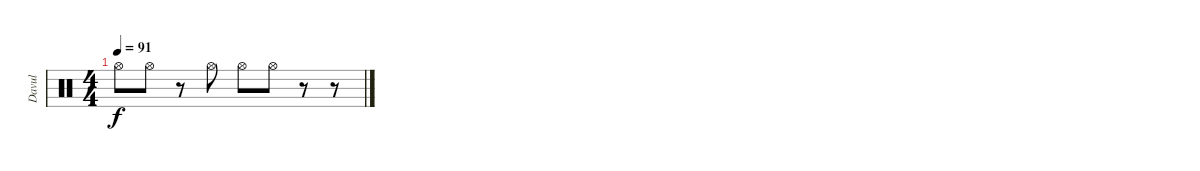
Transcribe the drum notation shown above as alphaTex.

\track ("Davul" "Davul") {instrument percussion}
\staff {score}
\articulation defaults
\ts (4 4)
\tempo 91
\clef neutral
\ks c "Hi-Hat (open)".8{dy f} "Hi-Hat (open)".8
r.8 "Hi-Hat (open)".8 "Hi-Hat (open)".8 "Hi-Hat (open)".8 r.8 r.8
